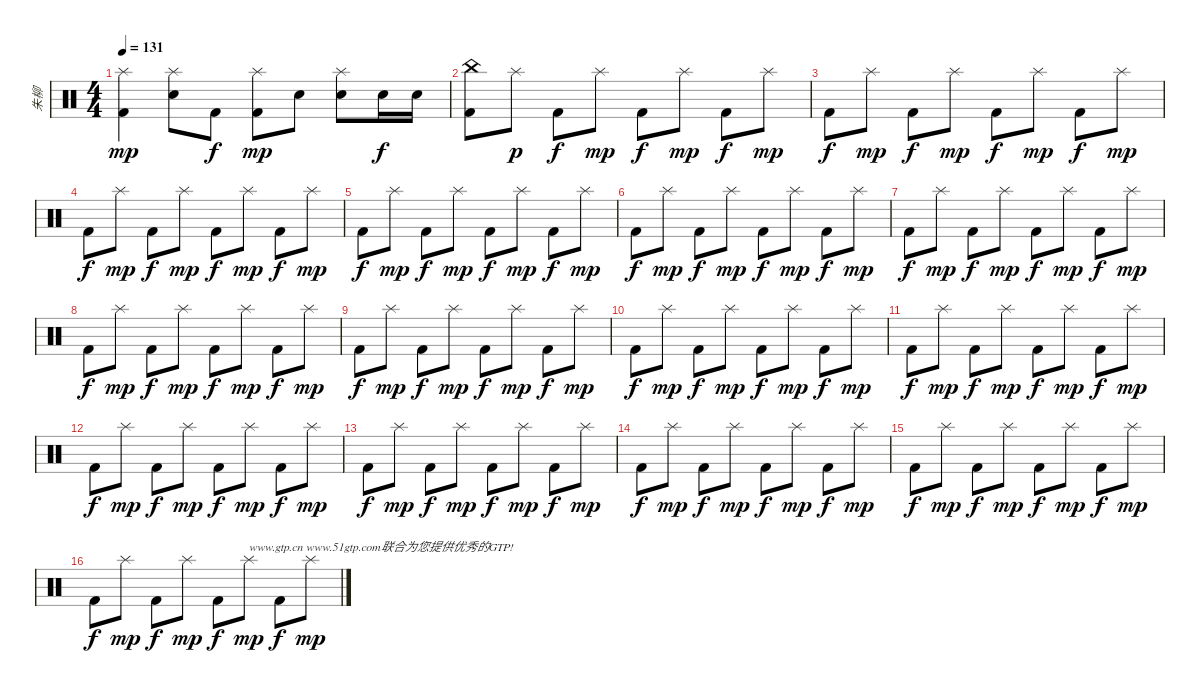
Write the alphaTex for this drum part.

\track ("朱柳" "朱柳") {instrument percussion}
\staff {score}
\articulation defaults
\ts (4 4)
\tempo 131
\clef neutral
\ks c
("Splash (hit)" "Kick (hit) 2").4{dy mp} ("Splash (hit)" "Electric Snare (hit)").8 "Kick (hit) 2".8{dy f} ("Splash (hit)" "Kick (hit) 2").8{dy mp} "Electric Snare (hit)".8 ("Splash (hit)" "Electric Snare (hit)").8 "Electric Snare (hit)".16{dy f} "Electric Snare (hit)".16 |
("China (hit)" "Kick (hit) 2").8 "Splash (hit)".8{dy p} "Kick (hit) 2".8{dy f} "Splash (hit)".8{dy mp} "Kick (hit) 2".8{dy f} "Splash (hit)".8{dy mp} "Kick (hit) 2".8{dy f} "Splash (hit)".8{dy mp} |
"Kick (hit) 2".8{dy f} "Splash (hit)".8{dy mp} "Kick (hit) 2".8{dy f} "Splash (hit)".8{dy mp} "Kick (hit) 2".8{dy f} "Splash (hit)".8{dy mp} "Kick (hit) 2".8{dy f} "Splash (hit)".8{dy mp} |
"Kick (hit) 2".8{dy f} "Splash (hit)".8{dy mp} "Kick (hit) 2".8{dy f} "Splash (hit)".8{dy mp} "Kick (hit) 2".8{dy f} "Splash (hit)".8{dy mp} "Kick (hit) 2".8{dy f} "Splash (hit)".8{dy mp} |
"Kick (hit) 2".8{dy f} "Splash (hit)".8{dy mp} "Kick (hit) 2".8{dy f} "Splash (hit)".8{dy mp} "Kick (hit) 2".8{dy f} "Splash (hit)".8{dy mp} "Kick (hit) 2".8{dy f} "Splash (hit)".8{dy mp} |
"Kick (hit) 2".8{dy f} "Splash (hit)".8{dy mp} "Kick (hit) 2".8{dy f} "Splash (hit)".8{dy mp} "Kick (hit) 2".8{dy f} "Splash (hit)".8{dy mp} "Kick (hit) 2".8{dy f} "Splash (hit)".8{dy mp} |
"Kick (hit) 2".8{dy f} "Splash (hit)".8{dy mp} "Kick (hit) 2".8{dy f} "Splash (hit)".8{dy mp} "Kick (hit) 2".8{dy f} "Splash (hit)".8{dy mp} "Kick (hit) 2".8{dy f} "Splash (hit)".8{dy mp} |
"Kick (hit) 2".8{dy f} "Splash (hit)".8{dy mp} "Kick (hit) 2".8{dy f} "Splash (hit)".8{dy mp} "Kick (hit) 2".8{dy f} "Splash (hit)".8{dy mp} "Kick (hit) 2".8{dy f} "Splash (hit)".8{dy mp} |
"Kick (hit) 2".8{dy f} "Splash (hit)".8{dy mp} "Kick (hit) 2".8{dy f} "Splash (hit)".8{dy mp} "Kick (hit) 2".8{dy f} "Splash (hit)".8{dy mp} "Kick (hit) 2".8{dy f} "Splash (hit)".8{dy mp} |
"Kick (hit) 2".8{dy f} "Splash (hit)".8{dy mp} "Kick (hit) 2".8{dy f} "Splash (hit)".8{dy mp} "Kick (hit) 2".8{dy f} "Splash (hit)".8{dy mp} "Kick (hit) 2".8{dy f} "Splash (hit)".8{dy mp} |
"Kick (hit) 2".8{dy f} "Splash (hit)".8{dy mp} "Kick (hit) 2".8{dy f} "Splash (hit)".8{dy mp} "Kick (hit) 2".8{dy f} "Splash (hit)".8{dy mp} "Kick (hit) 2".8{dy f} "Splash (hit)".8{dy mp} |
"Kick (hit) 2".8{dy f} "Splash (hit)".8{dy mp} "Kick (hit) 2".8{dy f} "Splash (hit)".8{dy mp} "Kick (hit) 2".8{dy f} "Splash (hit)".8{dy mp} "Kick (hit) 2".8{dy f} "Splash (hit)".8{dy mp} |
"Kick (hit) 2".8{dy f} "Splash (hit)".8{dy mp} "Kick (hit) 2".8{dy f} "Splash (hit)".8{dy mp} "Kick (hit) 2".8{dy f} "Splash (hit)".8{dy mp} "Kick (hit) 2".8{dy f} "Splash (hit)".8{dy mp} |
"Kick (hit) 2".8{dy f} "Splash (hit)".8{dy mp} "Kick (hit) 2".8{dy f} "Splash (hit)".8{dy mp} "Kick (hit) 2".8{dy f} "Splash (hit)".8{dy mp} "Kick (hit) 2".8{dy f} "Splash (hit)".8{dy mp} |
"Kick (hit) 2".8{dy f} "Splash (hit)".8{dy mp} "Kick (hit) 2".8{dy f} "Splash (hit)".8{dy mp} "Kick (hit) 2".8{dy f} "Splash (hit)".8{dy mp} "Kick (hit) 2".8{dy f} "Splash (hit)".8{dy mp} |
"Kick (hit) 2".8{dy f} "Splash (hit)".8{dy mp} "Kick (hit) 2".8{dy f} "Splash (hit)".8{dy mp} "Kick (hit) 2".8{dy f} "Splash (hit)".8{txt "www.gtp.cn www.51gtp.com联合为您提供优秀的GTP!" dy mp} "Kick (hit) 2".8{dy f} "Splash (hit)".8{dy mp}
